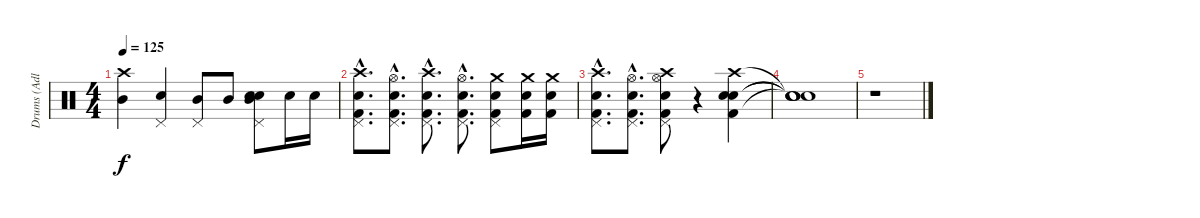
\track ("Drums (Adler)" "Drums (Adl") {instrument percussion}
\staff {score}
\articulation defaults
\ts (4 4)
\tempo 125
\clef neutral
\ks c
("Crash high (hit)" "Mid Tom (hit)").4{dy f} ("Pedal Hi-Hat (hit)" "Snare (hit) 2").4 ("Pedal Hi-Hat (hit)" "Mid Tom (hit)").8 "Mid Tom (hit)".8 ("Pedal Hi-Hat (hit)" "Snare (hit) 2" "Electric Snare (hit)" "Mid Tom (hit)").8 "Electric Snare (hit)".16 "Electric Snare (hit)".16 |
("Kick (hit) 2"{hac} "Pedal Hi-Hat (hit)"{hac} "Snare (hit) 2"{hac} "Crash high (hit)"{hac}).8{d} ("Kick (hit) 2"{hac} "Pedal Hi-Hat (hit)"{hac} "Electric Snare (hit)"{hac} "Hi-Hat (open)"{hac}).8{d} ("Kick (hit) 2"{hac} "Pedal Hi-Hat (hit)"{hac} "Snare (hit) 2"{hac} "Crash high (hit)"{hac}).8{d} ("Kick (hit) 2"{hac} "Pedal Hi-Hat (hit)"{hac} "Electric Snare (hit)"{hac} "Hi-Hat (open)"{hac}).8{d} ("Kick (hit) 2" "Pedal Hi-Hat (hit)" "Electric Snare (hit)" "Crash medium (hit)").8 ("Kick (hit) 2" "Electric Snare (hit)" "Crash medium (hit)").16 ("Kick (hit) 2" "Electric Snare (hit)" "Crash medium (hit)").16 |
("Kick (hit) 2"{hac} "Pedal Hi-Hat (hit)"{hac} "Snare (hit) 2"{hac} "Crash high (hit)"{hac}).8{d} ("Kick (hit) 2"{hac} "Pedal Hi-Hat (hit)"{hac} "Electric Snare (hit)"{hac} "Hi-Hat (open)"{hac}).8{d} ("Kick (hit) 2" "Pedal Hi-Hat (hit)" "Snare (hit) 2" "Crash high (hit)" "Hi-Hat (open)").8 r.4 ("Kick (hit) 2" "Crash high (hit)" "Snare (hit) 2" "Electric Snare (hit)").4 |
("Snare (hit)"{t} "Snare (hit)"{t} "Snare (hit)"{t} "Snare (hit)"{t}).1 |
r.1
